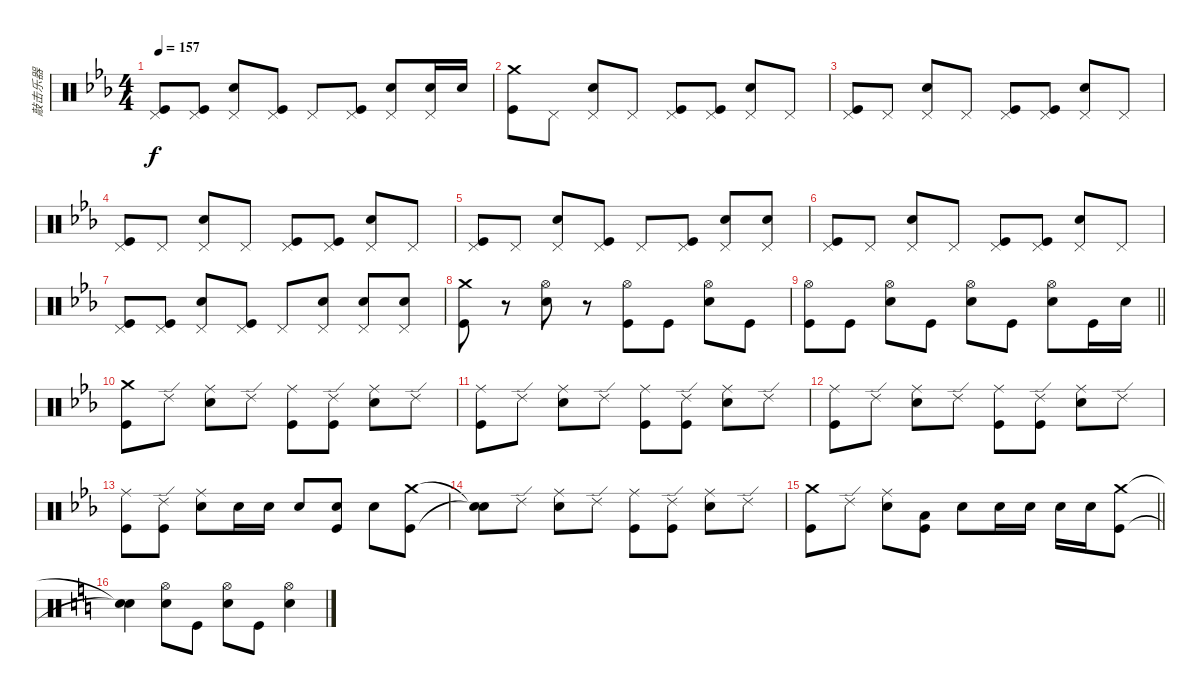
\track ("敲击乐器" "敲击乐器") {instrument percussion}
\staff {score}
\articulation defaults
\ts (4 4)
\tempo 157
\clef neutral
\ks eb
("Pedal Hi-Hat (hit)" "Kick (hit)").8{dy f} ("Pedal Hi-Hat (hit)" "Kick (hit)").8 ("Pedal Hi-Hat (hit)" "Snare (hit) 2").8 ("Pedal Hi-Hat (hit)" "Kick (hit)").8 "Pedal Hi-Hat (hit)".8 ("Pedal Hi-Hat (hit)" "Kick (hit)").8 ("Pedal Hi-Hat (hit)" "Snare (hit) 2").8 ("Pedal Hi-Hat (hit)" "Snare (hit) 2").16 "Snare (hit) 2".16 |
("Crash medium (hit)" "Kick (hit)").8 "Pedal Hi-Hat (hit)".8 ("Pedal Hi-Hat (hit)" "Snare (hit) 2").8 "Pedal Hi-Hat (hit)".8 ("Pedal Hi-Hat (hit)" "Kick (hit)").8 ("Pedal Hi-Hat (hit)" "Kick (hit)").8 ("Pedal Hi-Hat (hit)" "Snare (hit) 2").8 "Pedal Hi-Hat (hit)".8 |
("Pedal Hi-Hat (hit)" "Kick (hit)").8 "Pedal Hi-Hat (hit)".8 ("Pedal Hi-Hat (hit)" "Snare (hit) 2").8 "Pedal Hi-Hat (hit)".8 ("Pedal Hi-Hat (hit)" "Kick (hit)").8 ("Pedal Hi-Hat (hit)" "Kick (hit)").8 ("Pedal Hi-Hat (hit)" "Snare (hit) 2").8 "Pedal Hi-Hat (hit)".8 |
("Pedal Hi-Hat (hit)" "Kick (hit)").8 "Pedal Hi-Hat (hit)".8 ("Pedal Hi-Hat (hit)" "Snare (hit) 2").8 "Pedal Hi-Hat (hit)".8 ("Pedal Hi-Hat (hit)" "Kick (hit)").8 ("Pedal Hi-Hat (hit)" "Kick (hit)").8 ("Pedal Hi-Hat (hit)" "Snare (hit) 2").8 "Pedal Hi-Hat (hit)".8 |
("Pedal Hi-Hat (hit)" "Kick (hit)").8 "Pedal Hi-Hat (hit)".8 ("Pedal Hi-Hat (hit)" "Snare (hit) 2").8 ("Pedal Hi-Hat (hit)" "Kick (hit)").8 "Pedal Hi-Hat (hit)".8 ("Pedal Hi-Hat (hit)" "Kick (hit)").8 ("Pedal Hi-Hat (hit)" "Snare (hit) 2").8 ("Pedal Hi-Hat (hit)" "Snare (hit) 2").8 |
("Pedal Hi-Hat (hit)" "Kick (hit)").8 "Pedal Hi-Hat (hit)".8 ("Pedal Hi-Hat (hit)" "Snare (hit) 2").8 "Pedal Hi-Hat (hit)".8 ("Pedal Hi-Hat (hit)" "Kick (hit)").8 ("Pedal Hi-Hat (hit)" "Kick (hit)").8 ("Pedal Hi-Hat (hit)" "Snare (hit) 2").8 "Pedal Hi-Hat (hit)".8 |
("Pedal Hi-Hat (hit)" "Kick (hit)").8 ("Pedal Hi-Hat (hit)" "Kick (hit)").8 ("Pedal Hi-Hat (hit)" "Snare (hit) 2").8 ("Pedal Hi-Hat (hit)" "Kick (hit)").8 "Pedal Hi-Hat (hit)".8 ("Pedal Hi-Hat (hit)" "Snare (hit) 2").8 ("Pedal Hi-Hat (hit)" "Snare (hit) 2").8 ("Pedal Hi-Hat (hit)" "Snare (hit) 2").8 |
("Crash medium (hit)" "Kick (hit)").8 r.8 ("Hi-Hat (open)" "Snare (hit) 2").8 r.8 ("Hi-Hat (open)" "Kick (hit)").8 "Kick (hit)".8 ("Hi-Hat (open)" "Snare (hit) 2").8 "Kick (hit)".8 |
\barLineRight lightlight
("Hi-Hat (open)" "Kick (hit)").8 "Kick (hit)".8 ("Hi-Hat (open)" "Snare (hit) 2").8 "Kick (hit)".8 ("Hi-Hat (open)" "Snare (hit) 2").8 "Kick (hit)".8 ("Hi-Hat (open)" "Snare (hit) 2").8 "Kick (hit)".16 "Snare (hit) 2".16 |
("Crash medium (hit)" "Kick (hit)").8 "Ride (edge) 2".8 ("Ride (middle)" "Snare (hit) 2").8 "Ride (edge) 2".8 ("Ride (middle)" "Kick (hit)").8 ("Ride (edge) 2" "Kick (hit)").8 ("Ride (middle)" "Snare (hit) 2").8 "Ride (edge) 2".8 |
("Ride (middle)" "Kick (hit)").8 "Ride (edge) 2".8 ("Ride (middle)" "Snare (hit) 2").8 "Ride (edge) 2".8 ("Ride (middle)" "Kick (hit)").8 ("Ride (edge) 2" "Kick (hit)").8 ("Ride (middle)" "Snare (hit) 2").8 "Ride (edge) 2".8 |
("Ride (middle)" "Kick (hit)").8 "Ride (edge) 2".8 ("Ride (middle)" "Snare (hit) 2").8 "Ride (edge) 2".8 ("Ride (middle)" "Kick (hit)").8 ("Ride (edge) 2" "Kick (hit)").8 ("Ride (middle)" "Snare (hit) 2").8 "Ride (edge) 2".8 |
("Ride (middle)" "Kick (hit)").8 ("Ride (edge) 2" "Kick (hit)").8 ("Ride (middle)" "Snare (hit) 2").8 "Snare (hit) 2".16 "Snare (hit) 2".16 "Snare (hit) 2".8 ("Snare (hit) 2" "Kick (hit)").8 "Snare (hit) 2".8 ("Crash medium (hit)" "Kick (hit)").8 |
("Snare (hit)"{t} "Snare (hit)"{t}).8 "Ride (edge) 2".8 ("Ride (middle)" "Snare (hit) 2").8 "Ride (edge) 2".8 ("Ride (middle)" "Kick (hit)").8 ("Ride (edge) 2" "Kick (hit)").8 ("Ride (middle)" "Snare (hit) 2").8 "Ride (edge) 2".8 |
\barLineRight lightlight
("Crash medium (hit)" "Kick (hit)").8 "Ride (edge) 2".8 ("Ride (middle)" "Snare (hit) 2").8 ("Low Tom (hit)" "Kick (hit)").8 "Snare (hit) 2".8 "Snare (hit) 2".16 "Snare (hit) 2".16 "Snare (hit) 2".16 "Snare (hit) 2".16 ("Crash medium (hit)" "Kick (hit)").8 |
\ks c
("Snare (hit)"{t} "Snare (hit)"{t}).4 ("Hi-Hat (open)" "Snare (hit) 2").8 "Kick (hit)".8 ("Hi-Hat (open)" "Snare (hit) 2").8 "Kick (hit)".8 ("Hi-Hat (open)" "Snare (hit) 2").4
